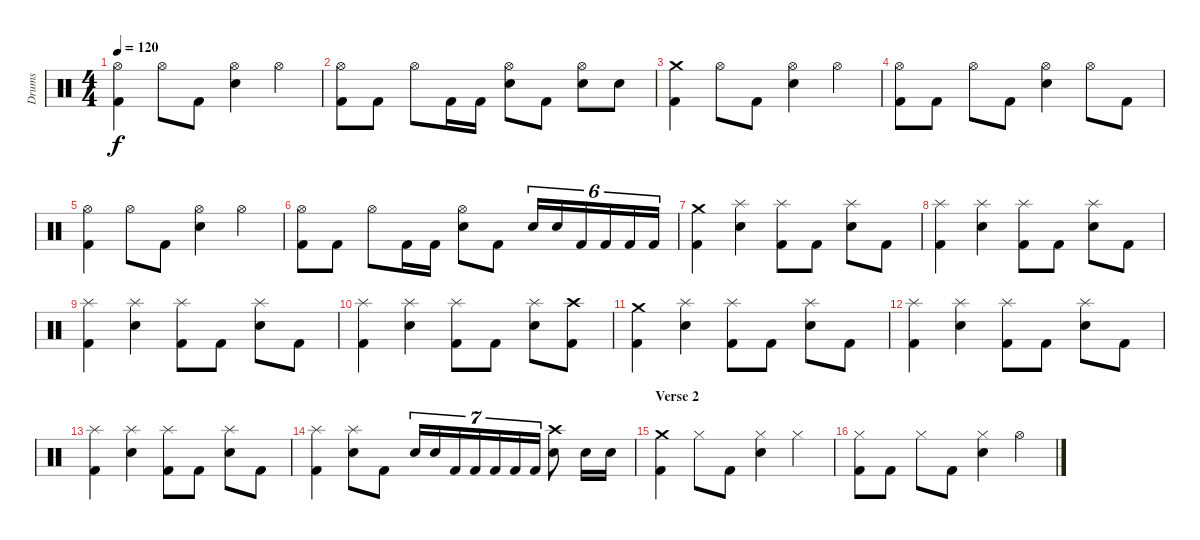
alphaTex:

\track ("Drums" "Drums") {instrument percussion}
\staff {score}
\articulation defaults
\ts (4 4)
\tempo 120
\clef neutral
\ks c
("Hi-Hat (open)" "Kick (hit) 2").4{dy f} "Hi-Hat (open)".8 "Kick (hit) 2".8 ("Hi-Hat (open)" "Snare (hit) 2").4 "Hi-Hat (open)".4 |
("Hi-Hat (open)" "Kick (hit) 2").8 "Kick (hit) 2".8 "Hi-Hat (open)".8 "Kick (hit) 2".16 "Kick (hit) 2".16 ("Hi-Hat (open)" "Snare (hit) 2").8 "Kick (hit) 2".8 ("Hi-Hat (open)" "Snare (hit) 2").8 "Snare (hit) 2".8 |
("Crash medium (hit)" "Kick (hit) 2").4 "Hi-Hat (open)".8 "Kick (hit) 2".8 ("Hi-Hat (open)" "Snare (hit) 2").4 "Hi-Hat (open)".4 |
("Hi-Hat (open)" "Kick (hit) 2").8 "Kick (hit) 2".8 "Hi-Hat (open)".8 "Kick (hit) 2".8 ("Hi-Hat (open)" "Snare (hit) 2").4 "Hi-Hat (open)".8 "Kick (hit) 2".8 |
("Hi-Hat (open)" "Kick (hit) 2").4 "Hi-Hat (open)".8 "Kick (hit) 2".8 ("Hi-Hat (open)" "Snare (hit) 2").4 "Hi-Hat (open)".4 |
("Hi-Hat (open)" "Kick (hit) 2").8 "Kick (hit) 2".8 "Hi-Hat (open)".8 "Kick (hit) 2".16 "Kick (hit) 2".16 ("Hi-Hat (open)" "Snare (hit) 2").8 "Kick (hit) 2".8 "Snare (hit) 2".16{tu (6 4)} "Snare (hit) 2".16{tu (6 4)} "Kick (hit) 2".16{tu (6 4)} "Kick (hit) 2".16{tu (6 4)} "Kick (hit) 2".16{tu (6 4)} "Kick (hit) 2".16{tu (6 4)} |
("Crash medium (hit)" "Kick (hit) 2").4 ("Splash (hit)" "Snare (hit) 2").4 ("Splash (hit)" "Kick (hit) 2").8 "Kick (hit) 2".8 ("Splash (hit)" "Snare (hit) 2").8 "Kick (hit) 2".8 |
("Splash (hit)" "Kick (hit) 2").4 ("Splash (hit)" "Snare (hit) 2").4 ("Splash (hit)" "Kick (hit) 2").8 "Kick (hit) 2".8 ("Splash (hit)" "Snare (hit) 2").8 "Kick (hit) 2".8 |
("Splash (hit)" "Kick (hit) 2").4 ("Splash (hit)" "Snare (hit) 2").4 ("Splash (hit)" "Kick (hit) 2").8 "Kick (hit) 2".8 ("Splash (hit)" "Snare (hit) 2").8 "Kick (hit) 2".8 |
("Splash (hit)" "Kick (hit) 2").4 ("Splash (hit)" "Snare (hit) 2").4 ("Splash (hit)" "Kick (hit) 2").8 "Kick (hit) 2".8 ("Splash (hit)" "Snare (hit) 2").8 ("Crash high (hit)" "Kick (hit) 2").8 |
("Crash medium (hit)" "Kick (hit) 2").4 ("Splash (hit)" "Snare (hit) 2").4 ("Splash (hit)" "Kick (hit) 2").8 "Kick (hit) 2".8 ("Splash (hit)" "Snare (hit) 2").8 "Kick (hit) 2".8 |
("Splash (hit)" "Kick (hit) 2").4 ("Splash (hit)" "Snare (hit) 2").4 ("Splash (hit)" "Kick (hit) 2").8 "Kick (hit) 2".8 ("Splash (hit)" "Snare (hit) 2").8 "Kick (hit) 2".8 |
("Splash (hit)" "Kick (hit) 2").4 ("Splash (hit)" "Snare (hit) 2").4 ("Splash (hit)" "Kick (hit) 2").8 "Kick (hit) 2".8 ("Splash (hit)" "Snare (hit) 2").8 "Kick (hit) 2".8 |
("Splash (hit)" "Kick (hit) 2").4 ("Splash (hit)" "Snare (hit) 2").8 "Kick (hit) 2".8 "Snare (hit) 2".16{tu (7 4)} "Snare (hit) 2".16{tu (7 4)} "Kick (hit) 2".16{tu (7 4)} "Kick (hit) 2".16{tu (7 4)} "Kick (hit) 2".16{tu (7 4)} "Kick (hit) 2".16{tu (7 4)} "Kick (hit) 2".16{tu (7 4)} ("Crash high (hit)" "Snare (hit) 2").8 "Snare (hit) 2".16 "Snare (hit) 2".16 |
\section ("" "Verse 2")
("Crash medium (hit)" "Kick (hit) 2").4 "Hi-Hat (closed)".8 "Kick (hit) 2".8 ("Hi-Hat (closed)" "Snare (hit) 2").4 "Hi-Hat (closed)".4 |
("Hi-Hat (closed)" "Kick (hit) 2").8 "Kick (hit) 2".8 "Hi-Hat (closed)".8 "Kick (hit) 2".8 ("Hi-Hat (closed)" "Snare (hit) 2").4 "Hi-Hat (open)".4
